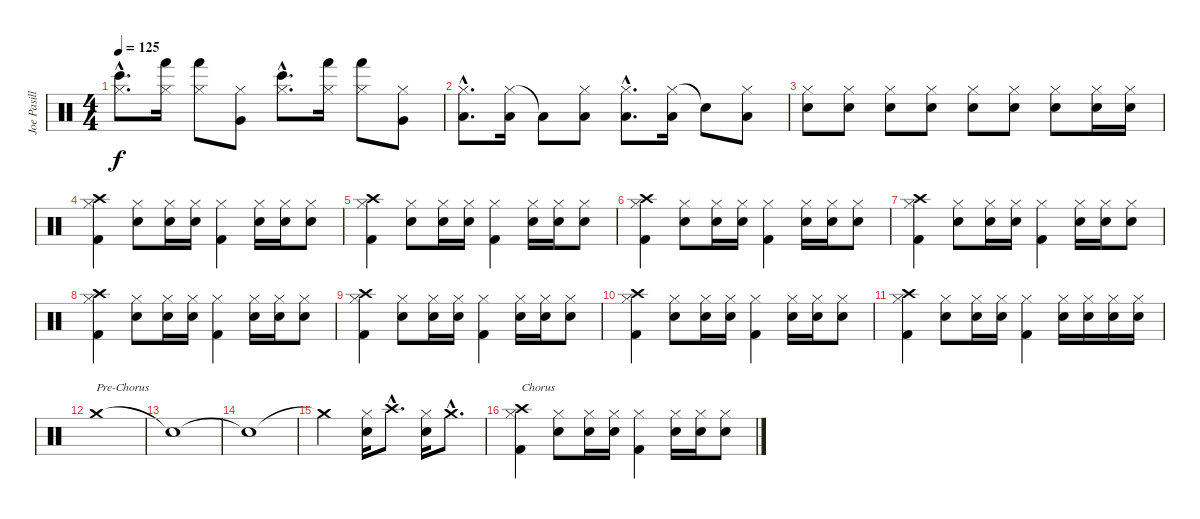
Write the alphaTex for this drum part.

\track ("Joe Pasillas" "Joe Pasill") {instrument percussion}
\staff {score}
\articulation defaults
\ts (4 4)
\tempo 125
\clef neutral
\ks c
("Hi-Hat (closed)"{hac} "Bongo High (hit)"{hac}).8{d dy f} ("Hi-Hat (closed)" "Hand (hit)").16 ("Hi-Hat (closed)" "Hand (hit)").8 ("Hi-Hat (closed)" "Very Low Tom (hit)").8 ("Hi-Hat (closed)"{hac} "Bongo High (hit)"{hac}).8{d} ("Hi-Hat (closed)" "Hand (hit)").16 ("Hi-Hat (closed)" "Hand (hit)").8 ("Hi-Hat (closed)" "Very Low Tom (hit)").8 |
("Hi-Hat (closed)"{hac} "Low Tom (hit)"{hac}).8{d} ("Hi-Hat (closed)" "Low Tom (hit)").16 "Low Floor Tom (hit)"{t}.8 ("Hi-Hat (closed)" "Low Tom (hit)").8 ("Hi-Hat (closed)"{hac} "Low Tom (hit)"{hac}).8{d} ("Hi-Hat (closed)" "Low Tom (hit)").16 "Snare (hit)"{t}.8 ("Hi-Hat (closed)" "Low Tom (hit)").8 |
("Hi-Hat (closed)" "Snare (hit) 2").8 ("Hi-Hat (closed)" "Snare (hit) 2").8 ("Hi-Hat (closed)" "Snare (hit) 2").8 ("Hi-Hat (closed)" "Electric Snare (hit)").8 ("Hi-Hat (closed)" "Electric Snare (hit)").8 ("Hi-Hat (closed)" "Electric Snare (hit)").8 ("Hi-Hat (closed)" "Electric Snare (hit)").8 ("Hi-Hat (closed)" "Snare (hit) 2").16 ("Hi-Hat (closed)" "Snare (hit) 2").16 |
("Crash high (hit)" "Hi-Hat (closed)" "Kick (hit) 2").4 ("Hi-Hat (closed)" "Snare (hit) 2").8 ("Hi-Hat (closed)" "Snare (hit) 2").16 ("Hi-Hat (closed)" "Snare (hit) 2").16 ("Hi-Hat (closed)" "Kick (hit) 2").4 ("Hi-Hat (closed)" "Snare (hit) 2").16 ("Hi-Hat (closed)" "Snare (hit) 2").16 ("Hi-Hat (closed)" "Snare (hit) 2").8 |
("Crash high (hit)" "Hi-Hat (closed)" "Kick (hit) 2").4 ("Hi-Hat (closed)" "Snare (hit) 2").8 ("Hi-Hat (closed)" "Snare (hit) 2").16 ("Hi-Hat (closed)" "Snare (hit) 2").16 ("Hi-Hat (closed)" "Kick (hit) 2").4 ("Hi-Hat (closed)" "Snare (hit) 2").16 ("Hi-Hat (closed)" "Snare (hit) 2").16 ("Hi-Hat (closed)" "Snare (hit) 2").8 |
("Crash high (hit)" "Hi-Hat (closed)" "Kick (hit) 2").4 ("Hi-Hat (closed)" "Snare (hit) 2").8 ("Hi-Hat (closed)" "Snare (hit) 2").16 ("Hi-Hat (closed)" "Snare (hit) 2").16 ("Hi-Hat (closed)" "Kick (hit) 2").4 ("Hi-Hat (closed)" "Snare (hit) 2").16 ("Hi-Hat (closed)" "Snare (hit) 2").16 ("Hi-Hat (closed)" "Snare (hit) 2").8 |
("Crash high (hit)" "Hi-Hat (closed)" "Kick (hit) 2").4 ("Hi-Hat (closed)" "Snare (hit) 2").8 ("Hi-Hat (closed)" "Snare (hit) 2").16 ("Hi-Hat (closed)" "Snare (hit) 2").16 ("Hi-Hat (closed)" "Kick (hit) 2").4 ("Hi-Hat (closed)" "Snare (hit) 2").16 ("Hi-Hat (closed)" "Snare (hit) 2").16 ("Hi-Hat (closed)" "Snare (hit) 2").8 |
("Crash high (hit)" "Hi-Hat (closed)" "Kick (hit) 2").4 ("Hi-Hat (closed)" "Snare (hit) 2").8 ("Hi-Hat (closed)" "Snare (hit) 2").16 ("Hi-Hat (closed)" "Snare (hit) 2").16 ("Hi-Hat (closed)" "Kick (hit) 2").4 ("Hi-Hat (closed)" "Snare (hit) 2").16 ("Hi-Hat (closed)" "Snare (hit) 2").16 ("Hi-Hat (closed)" "Snare (hit) 2").8 |
("Crash high (hit)" "Hi-Hat (closed)" "Kick (hit) 2").4 ("Hi-Hat (closed)" "Snare (hit) 2").8 ("Hi-Hat (closed)" "Snare (hit) 2").16 ("Hi-Hat (closed)" "Snare (hit) 2").16 ("Hi-Hat (closed)" "Kick (hit) 2").4 ("Hi-Hat (closed)" "Snare (hit) 2").16 ("Hi-Hat (closed)" "Snare (hit) 2").16 ("Hi-Hat (closed)" "Snare (hit) 2").8 |
("Crash high (hit)" "Hi-Hat (closed)" "Kick (hit) 2").4 ("Hi-Hat (closed)" "Snare (hit) 2").8 ("Hi-Hat (closed)" "Snare (hit) 2").16 ("Hi-Hat (closed)" "Snare (hit) 2").16 ("Hi-Hat (closed)" "Kick (hit) 2").4 ("Hi-Hat (closed)" "Snare (hit) 2").16 ("Hi-Hat (closed)" "Snare (hit) 2").16 ("Hi-Hat (closed)" "Snare (hit) 2").8 |
("Crash high (hit)" "Hi-Hat (closed)" "Kick (hit) 2").4 ("Hi-Hat (closed)" "Snare (hit) 2").8 ("Hi-Hat (closed)" "Snare (hit) 2").16 ("Hi-Hat (closed)" "Snare (hit) 2").16 ("Hi-Hat (closed)" "Kick (hit) 2").4 ("Hi-Hat (closed)" "Snare (hit) 2").16 ("Hi-Hat (closed)" "Snare (hit) 2").16 ("Hi-Hat (closed)" "Snare (hit) 2").16 ("Hi-Hat (closed)" "Snare (hit) 2").16 |
"Crash medium (hit)".1{txt "Pre-Chorus"} |
"Snare (hit)"{t}.1 |
"Snare (hit)"{t}.1 |
"Crash medium (hit)"{t}.2 ("Hi-Hat (closed)" "Snare (hit) 2").16 "Crash high (hit)"{hac}.8{d} ("Hi-Hat (closed)" "Snare (hit) 2").16 "Crash medium (hit)"{hac}.8{d} |
("Crash high (hit)" "Hi-Hat (closed)" "Kick (hit) 2").4{txt "Chorus"} ("Hi-Hat (closed)" "Snare (hit) 2").8 ("Hi-Hat (closed)" "Snare (hit) 2").16 ("Hi-Hat (closed)" "Snare (hit) 2").16 ("Hi-Hat (closed)" "Kick (hit) 2").4 ("Hi-Hat (closed)" "Snare (hit) 2").16 ("Hi-Hat (closed)" "Snare (hit) 2").16 ("Hi-Hat (closed)" "Snare (hit) 2").8
